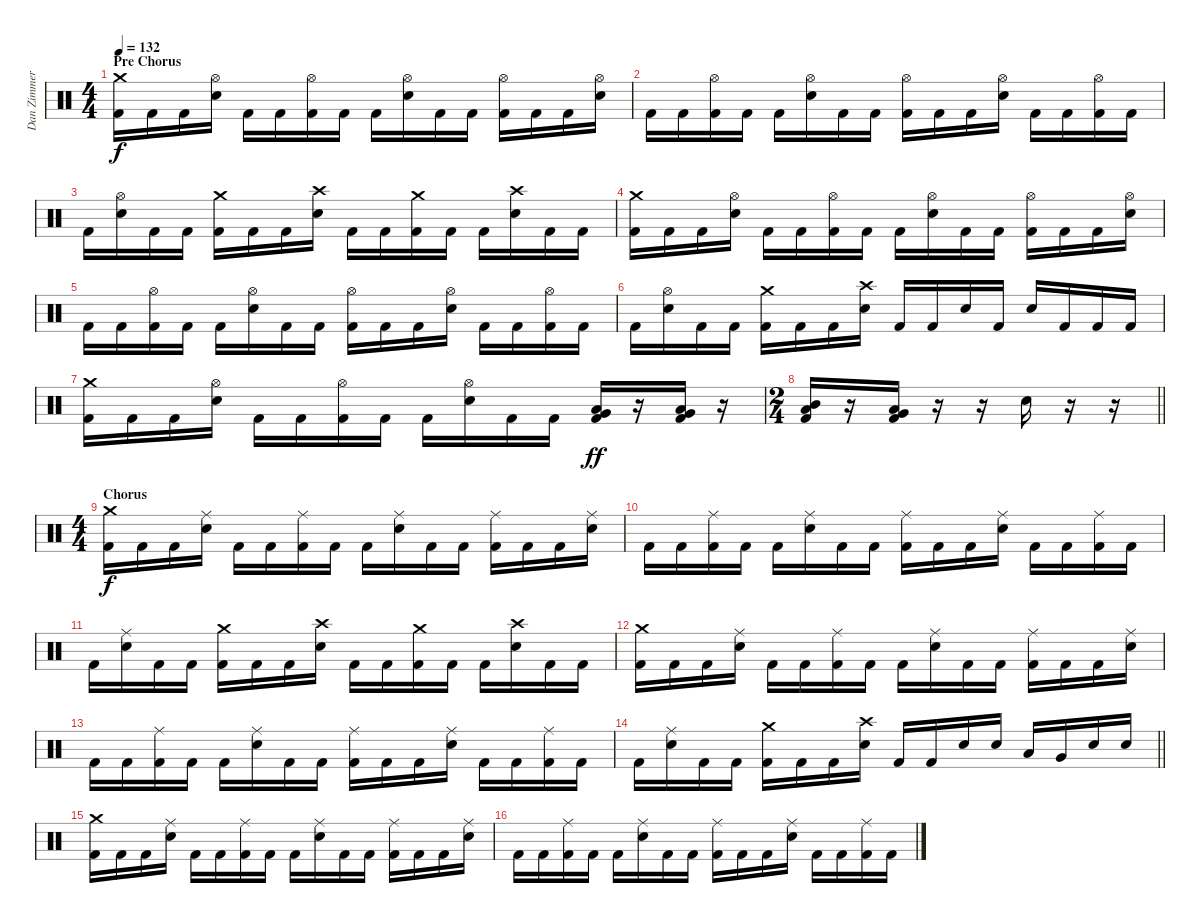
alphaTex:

\track ("Dan Zimmermann" "Dan Zimmer") {instrument percussion}
\staff {score}
\articulation defaults
\ts (4 4)
\section ("" "Pre Chorus")
\tempo 132
\clef neutral
\ks c
("Crash medium (hit)" "Kick (hit) 2").16{dy f} "Kick (hit) 2".16 "Kick (hit) 2".16 ("Hi-Hat (open)" "Electric Snare (hit)").16 "Kick (hit) 2".16 "Kick (hit) 2".16 ("Hi-Hat (open)" "Kick (hit) 2").16 "Kick (hit) 2".16 "Kick (hit) 2".16 ("Hi-Hat (open)" "Electric Snare (hit)").16 "Kick (hit) 2".16 "Kick (hit) 2".16 ("Hi-Hat (open)" "Kick (hit) 2").16 "Kick (hit) 2".16 "Kick (hit) 2".16 ("Hi-Hat (open)" "Electric Snare (hit)").16 |
"Kick (hit) 2".16 "Kick (hit) 2".16 ("Hi-Hat (open)" "Kick (hit) 2").16 "Kick (hit) 2".16 "Kick (hit) 2".16 ("Hi-Hat (open)" "Electric Snare (hit)").16 "Kick (hit) 2".16 "Kick (hit) 2".16 ("Hi-Hat (open)" "Kick (hit) 2").16 "Kick (hit) 2".16 "Kick (hit) 2".16 ("Hi-Hat (open)" "Electric Snare (hit)").16 "Kick (hit) 2".16 "Kick (hit) 2".16 ("Hi-Hat (open)" "Kick (hit) 2").16 "Kick (hit) 2".16 |
"Kick (hit) 2".16 ("Hi-Hat (open)" "Electric Snare (hit)").16 "Kick (hit) 2".16 "Kick (hit) 2".16 ("Crash medium (hit)" "Kick (hit) 2").16 "Kick (hit) 2".16 "Kick (hit) 2".16 ("Crash high (hit)" "Electric Snare (hit)").16 "Kick (hit) 2".16 "Kick (hit) 2".16 ("Crash medium (hit)" "Kick (hit) 2").16 "Kick (hit) 2".16 "Kick (hit) 2".16 ("Crash high (hit)" "Electric Snare (hit)").16 "Kick (hit) 2".16 "Kick (hit) 2".16 |
("Crash medium (hit)" "Kick (hit) 2").16 "Kick (hit) 2".16 "Kick (hit) 2".16 ("Hi-Hat (open)" "Electric Snare (hit)").16 "Kick (hit) 2".16 "Kick (hit) 2".16 ("Hi-Hat (open)" "Kick (hit) 2").16 "Kick (hit) 2".16 "Kick (hit) 2".16 ("Hi-Hat (open)" "Electric Snare (hit)").16 "Kick (hit) 2".16 "Kick (hit) 2".16 ("Hi-Hat (open)" "Kick (hit) 2").16 "Kick (hit) 2".16 "Kick (hit) 2".16 ("Hi-Hat (open)" "Electric Snare (hit)").16 |
"Kick (hit) 2".16 "Kick (hit) 2".16 ("Hi-Hat (open)" "Kick (hit) 2").16 "Kick (hit) 2".16 "Kick (hit) 2".16 ("Hi-Hat (open)" "Electric Snare (hit)").16 "Kick (hit) 2".16 "Kick (hit) 2".16 ("Hi-Hat (open)" "Kick (hit) 2").16 "Kick (hit) 2".16 "Kick (hit) 2".16 ("Hi-Hat (open)" "Electric Snare (hit)").16 "Kick (hit) 2".16 "Kick (hit) 2".16 ("Hi-Hat (open)" "Kick (hit) 2").16 "Kick (hit) 2".16 |
"Kick (hit) 2".16 ("Hi-Hat (open)" "Electric Snare (hit)").16 "Kick (hit) 2".16 "Kick (hit) 2".16 ("Crash medium (hit)" "Kick (hit) 2").16 "Kick (hit) 2".16 "Kick (hit) 2".16 ("Crash high (hit)" "Electric Snare (hit)").16 "Kick (hit) 2".16 "Kick (hit) 2".16 "Electric Snare (hit)".16 "Kick (hit) 2".16 "Electric Snare (hit)".16 "Kick (hit) 2".16 "Kick (hit) 2".16 "Kick (hit) 2".16 |
("Crash medium (hit)" "Kick (hit) 2").16 "Kick (hit) 2".16 "Kick (hit) 2".16 ("Hi-Hat (open)" "Electric Snare (hit)").16 "Kick (hit) 2".16 "Kick (hit) 2".16 ("Hi-Hat (open)" "Kick (hit) 2").16 "Kick (hit) 2".16 "Kick (hit) 2".16 ("Hi-Hat (open)" "Electric Snare (hit)").16 "Kick (hit) 2".16 "Kick (hit) 2".16 ("Low Floor Tom (hit)" "Very Low Tom (hit)" "Kick (hit) 2").16{dy ff} r.16 ("Low Tom (hit)" "Very Low Tom (hit)" "Kick (hit) 2").16 r.16 |
\ts (2 4)
\barLineRight lightlight
("Low Tom (hit)" "Mid Tom (hit)" "Kick (hit) 2").16 r.16 ("Low Floor Tom (hit)" "Very Low Tom (hit)" "Kick (hit) 2").16 r.16 r.16 "Electric Snare (hit)".16 r.16 r.16 |
\ts (4 4)
\section ("" "Chorus")
("Crash medium (hit)" "Kick (hit) 2").16{dy f} "Kick (hit) 2".16 "Kick (hit) 2".16 ("Ride (middle)" "Electric Snare (hit)").16 "Kick (hit) 2".16 "Kick (hit) 2".16 ("Ride (middle)" "Kick (hit) 2").16 "Kick (hit) 2".16 "Kick (hit) 2".16 ("Ride (middle)" "Electric Snare (hit)").16 "Kick (hit) 2".16 "Kick (hit) 2".16 ("Ride (middle)" "Kick (hit) 2").16 "Kick (hit) 2".16 "Kick (hit) 2".16 ("Ride (middle)" "Electric Snare (hit)").16 |
"Kick (hit) 2".16 "Kick (hit) 2".16 ("Ride (middle)" "Kick (hit) 2").16 "Kick (hit) 2".16 "Kick (hit) 2".16 ("Ride (middle)" "Electric Snare (hit)").16 "Kick (hit) 2".16 "Kick (hit) 2".16 ("Ride (middle)" "Kick (hit) 2").16 "Kick (hit) 2".16 "Kick (hit) 2".16 ("Ride (middle)" "Electric Snare (hit)").16 "Kick (hit) 2".16 "Kick (hit) 2".16 ("Ride (middle)" "Kick (hit) 2").16 "Kick (hit) 2".16 |
"Kick (hit) 2".16 ("Ride (middle)" "Electric Snare (hit)").16 "Kick (hit) 2".16 "Kick (hit) 2".16 ("Crash medium (hit)" "Kick (hit) 2").16 "Kick (hit) 2".16 "Kick (hit) 2".16 ("Crash high (hit)" "Electric Snare (hit)").16 "Kick (hit) 2".16 "Kick (hit) 2".16 ("Crash medium (hit)" "Kick (hit) 2").16 "Kick (hit) 2".16 "Kick (hit) 2".16 ("Crash high (hit)" "Electric Snare (hit)").16 "Kick (hit) 2".16 "Kick (hit) 2".16 |
("Crash medium (hit)" "Kick (hit) 2").16 "Kick (hit) 2".16 "Kick (hit) 2".16 ("Ride (middle)" "Electric Snare (hit)").16 "Kick (hit) 2".16 "Kick (hit) 2".16 ("Ride (middle)" "Kick (hit) 2").16 "Kick (hit) 2".16 "Kick (hit) 2".16 ("Ride (middle)" "Electric Snare (hit)").16 "Kick (hit) 2".16 "Kick (hit) 2".16 ("Ride (middle)" "Kick (hit) 2").16 "Kick (hit) 2".16 "Kick (hit) 2".16 ("Ride (middle)" "Electric Snare (hit)").16 |
"Kick (hit) 2".16 "Kick (hit) 2".16 ("Ride (middle)" "Kick (hit) 2").16 "Kick (hit) 2".16 "Kick (hit) 2".16 ("Ride (middle)" "Electric Snare (hit)").16 "Kick (hit) 2".16 "Kick (hit) 2".16 ("Ride (middle)" "Kick (hit) 2").16 "Kick (hit) 2".16 "Kick (hit) 2".16 ("Ride (middle)" "Electric Snare (hit)").16 "Kick (hit) 2".16 "Kick (hit) 2".16 ("Ride (middle)" "Kick (hit) 2").16 "Kick (hit) 2".16 |
\barLineRight lightlight "Kick (hit) 2".16
("Ride (middle)" "Electric Snare (hit)").16 "Kick (hit) 2".16 "Kick (hit) 2".16 ("Crash medium (hit)" "Kick (hit) 2").16 "Kick (hit) 2".16 "Kick (hit) 2".16 ("Crash high (hit)" "Electric Snare (hit)").16 "Kick (hit) 2".16 "Kick (hit) 2".16 "Electric Snare (hit)".16 "Electric Snare (hit)".16 "Low Tom (hit)".16 "Very Low Tom (hit)".16 "Electric Snare (hit)".16 "Electric Snare (hit)".16 |
("Crash medium (hit)" "Kick (hit) 2").16 "Kick (hit) 2".16 "Kick (hit) 2".16 ("Ride (middle)" "Electric Snare (hit)").16 "Kick (hit) 2".16 "Kick (hit) 2".16 ("Ride (middle)" "Kick (hit) 2").16 "Kick (hit) 2".16 "Kick (hit) 2".16 ("Ride (middle)" "Electric Snare (hit)").16 "Kick (hit) 2".16 "Kick (hit) 2".16 ("Ride (middle)" "Kick (hit) 2").16 "Kick (hit) 2".16 "Kick (hit) 2".16 ("Ride (middle)" "Electric Snare (hit)").16 |
"Kick (hit) 2".16 "Kick (hit) 2".16 ("Ride (middle)" "Kick (hit) 2").16 "Kick (hit) 2".16 "Kick (hit) 2".16 ("Ride (middle)" "Electric Snare (hit)").16 "Kick (hit) 2".16 "Kick (hit) 2".16 ("Ride (middle)" "Kick (hit) 2").16 "Kick (hit) 2".16 "Kick (hit) 2".16 ("Ride (middle)" "Electric Snare (hit)").16 "Kick (hit) 2".16 "Kick (hit) 2".16 ("Ride (middle)" "Kick (hit) 2").16 "Kick (hit) 2".16
